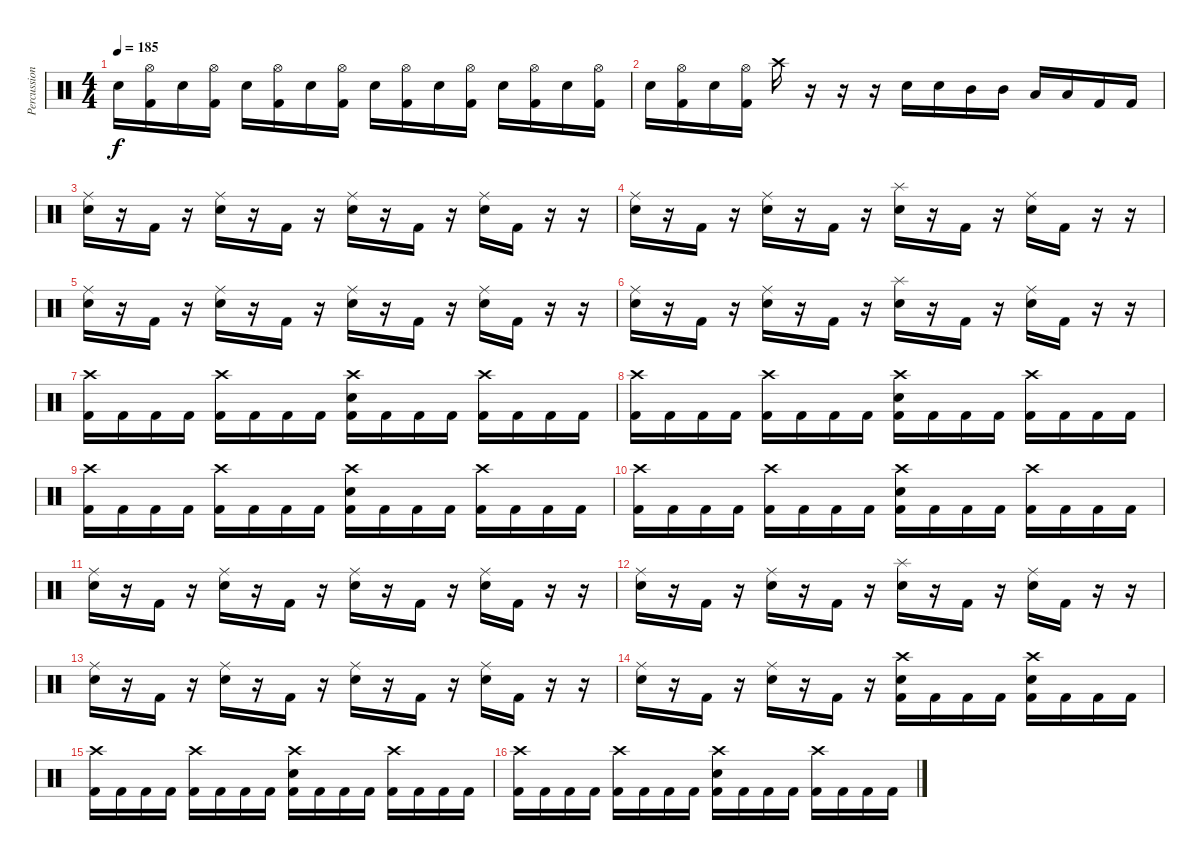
\track ("Percussion" "Percussion") {instrument percussion}
\staff {score}
\articulation defaults
\ts (4 4)
\tempo 185
\clef neutral
\ks c "Snare (hit) 2".16{dy f}
("Hi-Hat (open)" "Kick (hit) 2").16 "Snare (hit) 2".16 ("Hi-Hat (open)" "Kick (hit) 2").16 "Snare (hit) 2".16 ("Hi-Hat (open)" "Kick (hit) 2").16 "Snare (hit) 2".16 ("Hi-Hat (open)" "Kick (hit) 2").16 "Snare (hit) 2".16 ("Hi-Hat (open)" "Kick (hit) 2").16 "Snare (hit) 2".16 ("Hi-Hat (open)" "Kick (hit) 2").16 "Snare (hit) 2".16 ("Hi-Hat (open)" "Kick (hit) 2").16 "Snare (hit) 2".16 ("Hi-Hat (open)" "Kick (hit) 2").16 |
"Snare (hit) 2".16 ("Hi-Hat (open)" "Kick (hit) 2").16 "Snare (hit) 2".16 ("Hi-Hat (open)" "Kick (hit) 2").16 "Crash high (hit)".16 r.16 r.16 r.16 "Snare (hit) 2".16 "Snare (hit) 2".16 "Mid Tom (hit)".16 "Mid Tom (hit)".16 "Low Tom (hit)".16 "Low Tom (hit)".16 "Kick (hit) 2".16 "Kick (hit) 2".16 |
("Snare (hit) 2" "Ride (middle)").16 r.16 "Kick (hit) 2".16 r.16 ("Snare (hit) 2" "Ride (middle)").16 r.16 "Kick (hit) 2".16 r.16 ("Snare (hit) 2" "Ride (middle)").16 r.16 "Kick (hit) 2".16 r.16 ("Snare (hit) 2" "Ride (middle)").16 "Kick (hit) 2".16 r.16 r.16 |
("Snare (hit) 2" "Ride (middle)").16 r.16 "Kick (hit) 2".16 r.16 ("Snare (hit) 2" "Ride (middle)").16 r.16 "Kick (hit) 2".16 r.16 ("Snare (hit) 2" "Splash (hit)").16 r.16 "Kick (hit) 2".16 r.16 ("Snare (hit) 2" "Ride (middle)").16 "Kick (hit) 2".16 r.16 r.16 |
("Snare (hit) 2" "Ride (middle)").16 r.16 "Kick (hit) 2".16 r.16 ("Snare (hit) 2" "Ride (middle)").16 r.16 "Kick (hit) 2".16 r.16 ("Snare (hit) 2" "Ride (middle)").16 r.16 "Kick (hit) 2".16 r.16 ("Snare (hit) 2" "Ride (middle)").16 "Kick (hit) 2".16 r.16 r.16 |
("Snare (hit) 2" "Ride (middle)").16 r.16 "Kick (hit) 2".16 r.16 ("Snare (hit) 2" "Ride (middle)").16 r.16 "Kick (hit) 2".16 r.16 ("Snare (hit) 2" "Splash (hit)").16 r.16 "Kick (hit) 2".16 r.16 ("Snare (hit) 2" "Ride (middle)").16 "Kick (hit) 2".16 r.16 r.16 |
("Crash high (hit)" "Kick (hit) 2").16 "Kick (hit) 2".16 "Kick (hit) 2".16 "Kick (hit) 2".16 ("Crash high (hit)" "Kick (hit) 2").16 "Kick (hit) 2".16 "Kick (hit) 2".16 "Kick (hit) 2".16 ("Snare (hit) 2" "Crash high (hit)" "Kick (hit) 2").16 "Kick (hit) 2".16 "Kick (hit) 2".16 "Kick (hit) 2".16 ("Crash high (hit)" "Kick (hit) 2").16 "Kick (hit) 2".16 "Kick (hit) 2".16 "Kick (hit) 2".16 |
("Crash high (hit)" "Kick (hit) 2").16 "Kick (hit) 2".16 "Kick (hit) 2".16 "Kick (hit) 2".16 ("Crash high (hit)" "Kick (hit) 2").16 "Kick (hit) 2".16 "Kick (hit) 2".16 "Kick (hit) 2".16 ("Snare (hit) 2" "Crash high (hit)" "Kick (hit) 2").16 "Kick (hit) 2".16 "Kick (hit) 2".16 "Kick (hit) 2".16 ("Crash high (hit)" "Kick (hit) 2").16 "Kick (hit) 2".16 "Kick (hit) 2".16 "Kick (hit) 2".16 |
("Crash high (hit)" "Kick (hit) 2").16 "Kick (hit) 2".16 "Kick (hit) 2".16 "Kick (hit) 2".16 ("Crash high (hit)" "Kick (hit) 2").16 "Kick (hit) 2".16 "Kick (hit) 2".16 "Kick (hit) 2".16 ("Snare (hit) 2" "Crash high (hit)" "Kick (hit) 2").16 "Kick (hit) 2".16 "Kick (hit) 2".16 "Kick (hit) 2".16 ("Crash high (hit)" "Kick (hit) 2").16 "Kick (hit) 2".16 "Kick (hit) 2".16 "Kick (hit) 2".16 |
("Crash high (hit)" "Kick (hit) 2").16 "Kick (hit) 2".16 "Kick (hit) 2".16 "Kick (hit) 2".16 ("Crash high (hit)" "Kick (hit) 2").16 "Kick (hit) 2".16 "Kick (hit) 2".16 "Kick (hit) 2".16 ("Snare (hit) 2" "Crash high (hit)" "Kick (hit) 2").16 "Kick (hit) 2".16 "Kick (hit) 2".16 "Kick (hit) 2".16 ("Crash high (hit)" "Kick (hit) 2").16 "Kick (hit) 2".16 "Kick (hit) 2".16 "Kick (hit) 2".16 |
("Snare (hit) 2" "Ride (middle)").16 r.16 "Kick (hit) 2".16 r.16 ("Snare (hit) 2" "Ride (middle)").16 r.16 "Kick (hit) 2".16 r.16 ("Snare (hit) 2" "Ride (middle)").16 r.16 "Kick (hit) 2".16 r.16 ("Snare (hit) 2" "Ride (middle)").16 "Kick (hit) 2".16 r.16 r.16 |
("Snare (hit) 2" "Ride (middle)").16 r.16 "Kick (hit) 2".16 r.16 ("Snare (hit) 2" "Ride (middle)").16 r.16 "Kick (hit) 2".16 r.16 ("Snare (hit) 2" "Splash (hit)").16 r.16 "Kick (hit) 2".16 r.16 ("Snare (hit) 2" "Ride (middle)").16 "Kick (hit) 2".16 r.16 r.16 |
("Snare (hit) 2" "Ride (middle)").16 r.16 "Kick (hit) 2".16 r.16 ("Snare (hit) 2" "Ride (middle)").16 r.16 "Kick (hit) 2".16 r.16 ("Snare (hit) 2" "Ride (middle)").16 r.16 "Kick (hit) 2".16 r.16 ("Snare (hit) 2" "Ride (middle)").16 "Kick (hit) 2".16 r.16 r.16 |
("Snare (hit) 2" "Ride (middle)").16 r.16 "Kick (hit) 2".16 r.16 ("Snare (hit) 2" "Ride (middle)").16 r.16 "Kick (hit) 2".16 r.16 ("Snare (hit) 2" "Crash high (hit)" "Kick (hit) 2").16 "Kick (hit) 2".16 "Kick (hit) 2".16 "Kick (hit) 2".16 ("Snare (hit) 2" "Crash high (hit)" "Kick (hit) 2").16 "Kick (hit) 2".16 "Kick (hit) 2".16 "Kick (hit) 2".16 |
("Crash high (hit)" "Kick (hit) 2").16 "Kick (hit) 2".16 "Kick (hit) 2".16 "Kick (hit) 2".16 ("Crash high (hit)" "Kick (hit) 2").16 "Kick (hit) 2".16 "Kick (hit) 2".16 "Kick (hit) 2".16 ("Snare (hit) 2" "Crash high (hit)" "Kick (hit) 2").16 "Kick (hit) 2".16 "Kick (hit) 2".16 "Kick (hit) 2".16 ("Crash high (hit)" "Kick (hit) 2").16 "Kick (hit) 2".16 "Kick (hit) 2".16 "Kick (hit) 2".16 |
("Crash high (hit)" "Kick (hit) 2").16 "Kick (hit) 2".16 "Kick (hit) 2".16 "Kick (hit) 2".16 ("Crash high (hit)" "Kick (hit) 2").16 "Kick (hit) 2".16 "Kick (hit) 2".16 "Kick (hit) 2".16 ("Snare (hit) 2" "Crash high (hit)" "Kick (hit) 2").16 "Kick (hit) 2".16 "Kick (hit) 2".16 "Kick (hit) 2".16 ("Crash high (hit)" "Kick (hit) 2").16 "Kick (hit) 2".16 "Kick (hit) 2".16 "Kick (hit) 2".16
